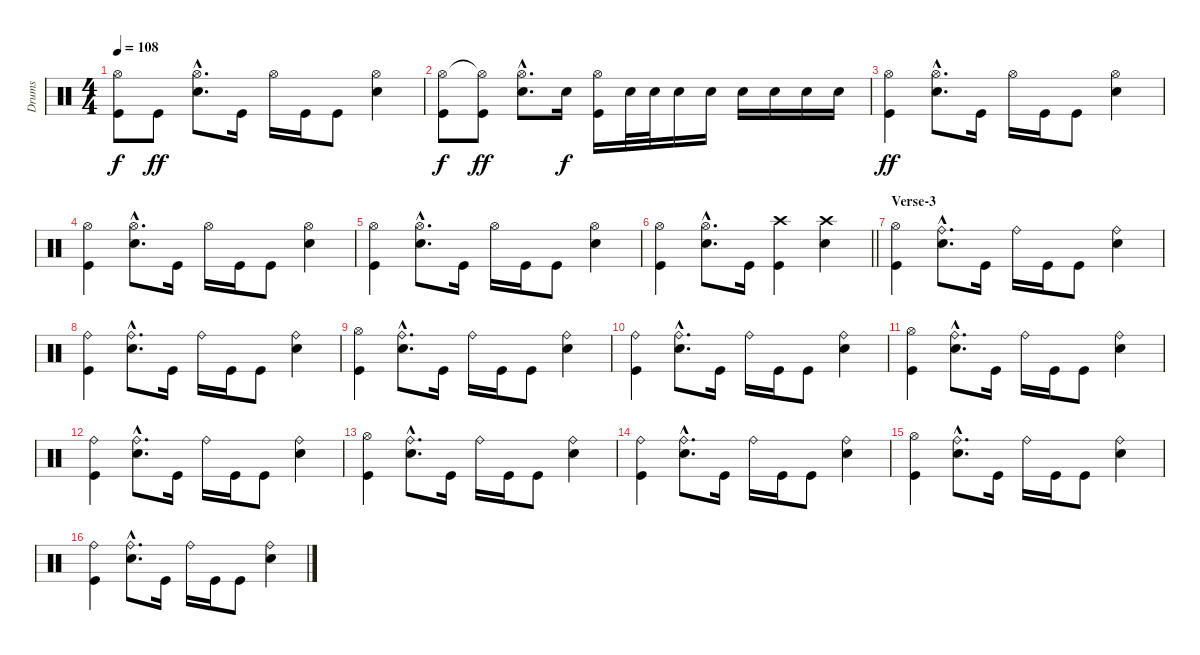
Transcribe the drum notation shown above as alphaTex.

\track ("Drums" "Drums") {instrument percussion}
\staff {score}
\articulation defaults
\ts (4 4)
\tempo 108
\clef neutral
\ks c
("Hi-Hat (open)" "Kick (hit)").8{dy f} "Kick (hit)".8{dy ff} ("Hi-Hat (open)"{hac} "Electric Snare (hit)"{hac}).8{d} "Kick (hit)".16 "Hi-Hat (open)".16 "Kick (hit)".16 "Kick (hit)".8 ("Hi-Hat (open)" "Electric Snare (hit)").4 |
("Hi-Hat (open)" "Kick (hit)").8{dy f} ("Hi-Hat (open)"{t} "Kick (hit)").8{dy ff} ("Hi-Hat (open)"{hac} "Electric Snare (hit)"{hac}).8{d} "Electric Snare (hit)".16{dy f} ("Hi-Hat (open)" "Kick (hit)").16 "Electric Snare (hit)".32 "Electric Snare (hit)".32 "Electric Snare (hit)".16 "Electric Snare (hit)".16 "Electric Snare (hit)".16 "Electric Snare (hit)".16 "Electric Snare (hit)".16 "Electric Snare (hit)".16 |
("Hi-Hat (open)" "Kick (hit)").4{dy ff} ("Hi-Hat (open)"{hac} "Electric Snare (hit)"{hac}).8{d} "Kick (hit)".16 "Hi-Hat (open)".16 "Kick (hit)".16 "Kick (hit)".8 ("Hi-Hat (open)" "Electric Snare (hit)").4 |
("Hi-Hat (open)" "Kick (hit)").4 ("Hi-Hat (open)"{hac} "Electric Snare (hit)"{hac}).8{d} "Kick (hit)".16 "Hi-Hat (open)".16 "Kick (hit)".16 "Kick (hit)".8 ("Hi-Hat (open)" "Electric Snare (hit)").4 |
("Hi-Hat (open)" "Kick (hit)").4 ("Hi-Hat (open)"{hac} "Electric Snare (hit)"{hac}).8{d} "Kick (hit)".16 "Hi-Hat (open)".16 "Kick (hit)".16 "Kick (hit)".8 ("Hi-Hat (open)" "Electric Snare (hit)").4 |
\barLineRight lightlight
("Hi-Hat (open)" "Kick (hit)").4 ("Hi-Hat (open)"{hac} "Electric Snare (hit)"{hac}).8{d} "Kick (hit)".16 ("Crash high (hit)" "Kick (hit)").4 ("Crash high (hit)" "Electric Snare (hit)").4 |
\section ("" "Verse-3")
("Hi-Hat (open)" "Kick (hit)").4 ("Ride (bell)"{hac} "Electric Snare (hit)"{hac}).8{d} "Kick (hit)".16 "Ride (bell)".16 "Kick (hit)".16 "Kick (hit)".8 ("Ride (bell)" "Electric Snare (hit)").4 |
("Ride (bell)" "Kick (hit)").4 ("Ride (bell)"{hac} "Electric Snare (hit)"{hac}).8{d} "Kick (hit)".16 "Ride (bell)".16 "Kick (hit)".16 "Kick (hit)".8 ("Ride (bell)" "Electric Snare (hit)").4 |
("Hi-Hat (open)" "Kick (hit)").4 ("Ride (bell)"{hac} "Electric Snare (hit)"{hac}).8{d} "Kick (hit)".16 "Ride (bell)".16 "Kick (hit)".16 "Kick (hit)".8 ("Ride (bell)" "Electric Snare (hit)").4 |
("Ride (bell)" "Kick (hit)").4 ("Ride (bell)"{hac} "Electric Snare (hit)"{hac}).8{d} "Kick (hit)".16 "Ride (bell)".16 "Kick (hit)".16 "Kick (hit)".8 ("Ride (bell)" "Electric Snare (hit)").4 |
("Hi-Hat (open)" "Kick (hit)").4 ("Ride (bell)"{hac} "Electric Snare (hit)"{hac}).8{d} "Kick (hit)".16 "Ride (bell)".16 "Kick (hit)".16 "Kick (hit)".8 ("Ride (bell)" "Electric Snare (hit)").4 |
("Ride (bell)" "Kick (hit)").4 ("Ride (bell)"{hac} "Electric Snare (hit)"{hac}).8{d} "Kick (hit)".16 "Ride (bell)".16 "Kick (hit)".16 "Kick (hit)".8 ("Ride (bell)" "Electric Snare (hit)").4 |
("Hi-Hat (open)" "Kick (hit)").4 ("Ride (bell)"{hac} "Electric Snare (hit)"{hac}).8{d} "Kick (hit)".16 "Ride (bell)".16 "Kick (hit)".16 "Kick (hit)".8 ("Ride (bell)" "Electric Snare (hit)").4 |
("Ride (bell)" "Kick (hit)").4 ("Ride (bell)"{hac} "Electric Snare (hit)"{hac}).8{d} "Kick (hit)".16 "Ride (bell)".16 "Kick (hit)".16 "Kick (hit)".8 ("Ride (bell)" "Electric Snare (hit)").4 |
("Hi-Hat (open)" "Kick (hit)").4 ("Ride (bell)"{hac} "Electric Snare (hit)"{hac}).8{d} "Kick (hit)".16 "Ride (bell)".16 "Kick (hit)".16 "Kick (hit)".8 ("Ride (bell)" "Electric Snare (hit)").4 |
("Ride (bell)" "Kick (hit)").4 ("Ride (bell)"{hac} "Electric Snare (hit)"{hac}).8{d} "Kick (hit)".16 "Ride (bell)".16 "Kick (hit)".16 "Kick (hit)".8 ("Ride (bell)" "Electric Snare (hit)").4
